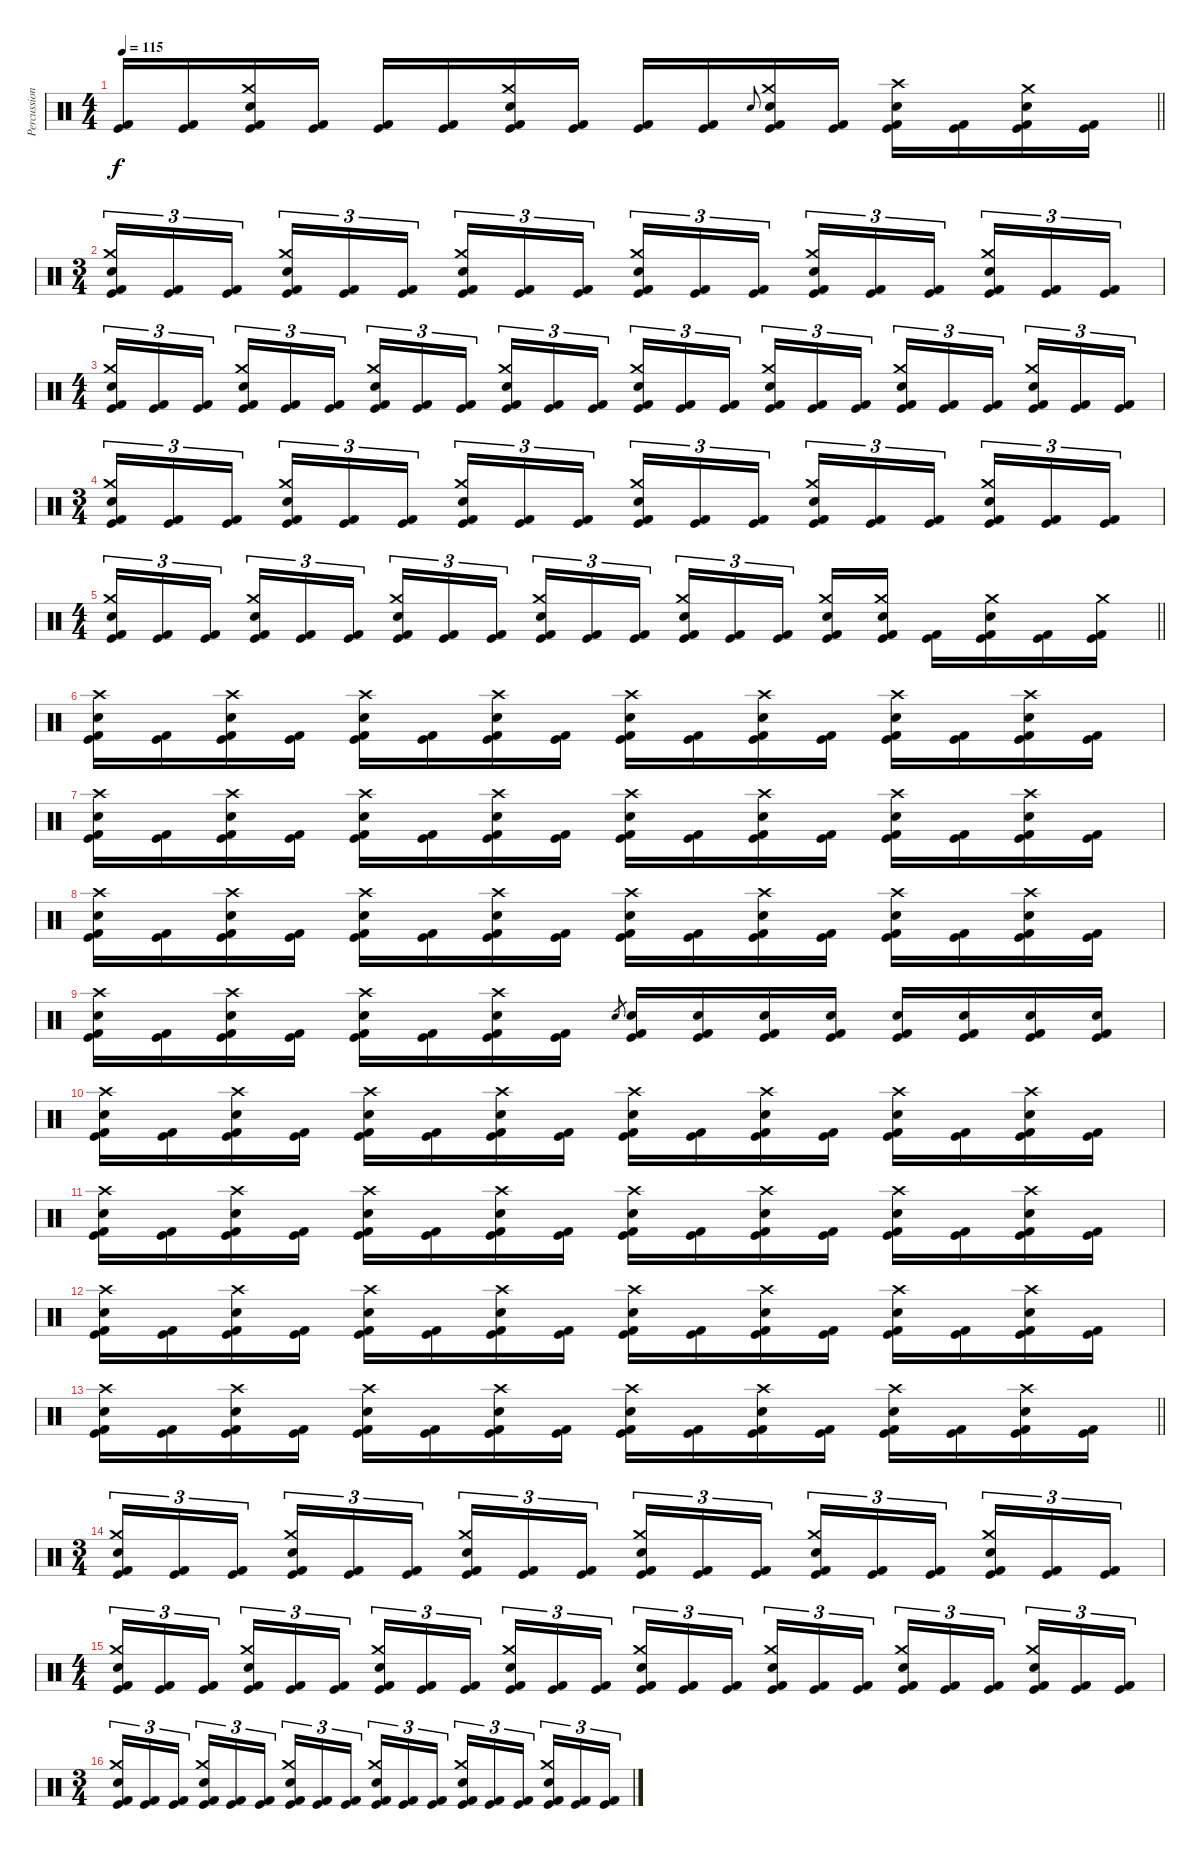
\track ("Percussion" "Percussion") {instrument percussion}
\staff {score}
\articulation defaults
\ts (4 4)
\tempo 115
\clef neutral
\barLineRight lightlight
\ks c
("Kick (hit)" "Kick (hit) 2").16{dy f} ("Kick (hit)" "Kick (hit) 2").16 ("Crash medium (hit)" "Electric Snare (hit)" "Kick (hit)" "Kick (hit) 2").16 ("Kick (hit)" "Kick (hit) 2").16 ("Kick (hit)" "Kick (hit) 2").16 ("Kick (hit)" "Kick (hit) 2").16 ("Crash medium (hit)" "Electric Snare (hit)" "Kick (hit)" "Kick (hit) 2").16 ("Kick (hit)" "Kick (hit) 2").16 ("Kick (hit)" "Kick (hit) 2").16 ("Kick (hit)" "Kick (hit) 2").16 "Electric Snare (hit)".8{gr onbeat} ("Crash medium (hit)" "Electric Snare (hit)" "Kick (hit)" "Kick (hit) 2").16 ("Kick (hit)" "Kick (hit) 2").16 ("Crash high (hit)" "Electric Snare (hit)" "Kick (hit)" "Kick (hit) 2").16 ("Kick (hit)" "Kick (hit) 2").16 ("Crash medium (hit)" "Electric Snare (hit)" "Kick (hit)" "Kick (hit) 2").16 ("Kick (hit)" "Kick (hit) 2").16 |
\ts (3 4)
\section ("" "")
("Crash medium (hit)" "Electric Snare (hit)" "Kick (hit)" "Kick (hit) 2").16{tu (3 2)} ("Kick (hit)" "Kick (hit) 2").16{tu (3 2)} ("Kick (hit)" "Kick (hit) 2").16{tu (3 2) beam splitsecondary} ("Crash medium (hit)" "Electric Snare (hit)" "Kick (hit)" "Kick (hit) 2").16{tu (3 2)} ("Kick (hit)" "Kick (hit) 2").16{tu (3 2)} ("Kick (hit)" "Kick (hit) 2").16{tu (3 2)} ("Crash medium (hit)" "Electric Snare (hit)" "Kick (hit)" "Kick (hit) 2").16{tu (3 2)} ("Kick (hit)" "Kick (hit) 2").16{tu (3 2)} ("Kick (hit)" "Kick (hit) 2").16{tu (3 2) beam splitsecondary} ("Crash medium (hit)" "Electric Snare (hit)" "Kick (hit)" "Kick (hit) 2").16{tu (3 2)} ("Kick (hit)" "Kick (hit) 2").16{tu (3 2)} ("Kick (hit)" "Kick (hit) 2").16{tu (3 2)} ("Crash medium (hit)" "Electric Snare (hit)" "Kick (hit)" "Kick (hit) 2").16{tu (3 2)} ("Kick (hit)" "Kick (hit) 2").16{tu (3 2)} ("Kick (hit)" "Kick (hit) 2").16{tu (3 2) beam splitsecondary} ("Crash medium (hit)" "Electric Snare (hit)" "Kick (hit)" "Kick (hit) 2").16{tu (3 2)} ("Kick (hit)" "Kick (hit) 2").16{tu (3 2)} ("Kick (hit)" "Kick (hit) 2").16{tu (3 2)} |
\ts (4 4)
("Crash medium (hit)" "Electric Snare (hit)" "Kick (hit)" "Kick (hit) 2").16{tu (3 2)} ("Kick (hit)" "Kick (hit) 2").16{tu (3 2)} ("Kick (hit)" "Kick (hit) 2").16{tu (3 2) beam splitsecondary} ("Crash medium (hit)" "Electric Snare (hit)" "Kick (hit)" "Kick (hit) 2").16{tu (3 2)} ("Kick (hit)" "Kick (hit) 2").16{tu (3 2)} ("Kick (hit)" "Kick (hit) 2").16{tu (3 2)} ("Crash medium (hit)" "Electric Snare (hit)" "Kick (hit)" "Kick (hit) 2").16{tu (3 2)} ("Kick (hit)" "Kick (hit) 2").16{tu (3 2)} ("Kick (hit)" "Kick (hit) 2").16{tu (3 2) beam splitsecondary} ("Crash medium (hit)" "Electric Snare (hit)" "Kick (hit)" "Kick (hit) 2").16{tu (3 2)} ("Kick (hit)" "Kick (hit) 2").16{tu (3 2)} ("Kick (hit)" "Kick (hit) 2").16{tu (3 2)} ("Crash medium (hit)" "Electric Snare (hit)" "Kick (hit)" "Kick (hit) 2").16{tu (3 2)} ("Kick (hit)" "Kick (hit) 2").16{tu (3 2)} ("Kick (hit)" "Kick (hit) 2").16{tu (3 2) beam splitsecondary} ("Crash medium (hit)" "Electric Snare (hit)" "Kick (hit)" "Kick (hit) 2").16{tu (3 2)} ("Kick (hit)" "Kick (hit) 2").16{tu (3 2)} ("Kick (hit)" "Kick (hit) 2").16{tu (3 2)} ("Crash medium (hit)" "Electric Snare (hit)" "Kick (hit)" "Kick (hit) 2").16{tu (3 2)} ("Kick (hit)" "Kick (hit) 2").16{tu (3 2)} ("Kick (hit)" "Kick (hit) 2").16{tu (3 2) beam splitsecondary} ("Crash medium (hit)" "Electric Snare (hit)" "Kick (hit)" "Kick (hit) 2").16{tu (3 2)} ("Kick (hit)" "Kick (hit) 2").16{tu (3 2)} ("Kick (hit)" "Kick (hit) 2").16{tu (3 2)} |
\ts (3 4)
("Crash medium (hit)" "Electric Snare (hit)" "Kick (hit)" "Kick (hit) 2").16{tu (3 2)} ("Kick (hit)" "Kick (hit) 2").16{tu (3 2)} ("Kick (hit)" "Kick (hit) 2").16{tu (3 2) beam splitsecondary} ("Crash medium (hit)" "Electric Snare (hit)" "Kick (hit)" "Kick (hit) 2").16{tu (3 2)} ("Kick (hit)" "Kick (hit) 2").16{tu (3 2)} ("Kick (hit)" "Kick (hit) 2").16{tu (3 2)} ("Crash medium (hit)" "Electric Snare (hit)" "Kick (hit)" "Kick (hit) 2").16{tu (3 2)} ("Kick (hit)" "Kick (hit) 2").16{tu (3 2)} ("Kick (hit)" "Kick (hit) 2").16{tu (3 2) beam splitsecondary} ("Crash medium (hit)" "Electric Snare (hit)" "Kick (hit)" "Kick (hit) 2").16{tu (3 2)} ("Kick (hit)" "Kick (hit) 2").16{tu (3 2)} ("Kick (hit)" "Kick (hit) 2").16{tu (3 2)} ("Crash medium (hit)" "Electric Snare (hit)" "Kick (hit)" "Kick (hit) 2").16{tu (3 2)} ("Kick (hit)" "Kick (hit) 2").16{tu (3 2)} ("Kick (hit)" "Kick (hit) 2").16{tu (3 2) beam splitsecondary} ("Crash medium (hit)" "Electric Snare (hit)" "Kick (hit)" "Kick (hit) 2").16{tu (3 2)} ("Kick (hit)" "Kick (hit) 2").16{tu (3 2)} ("Kick (hit)" "Kick (hit) 2").16{tu (3 2)} |
\ts (4 4)
\barLineRight lightlight
("Crash medium (hit)" "Electric Snare (hit)" "Kick (hit)" "Kick (hit) 2").16{tu (3 2)} ("Kick (hit)" "Kick (hit) 2").16{tu (3 2)} ("Kick (hit)" "Kick (hit) 2").16{tu (3 2) beam splitsecondary} ("Crash medium (hit)" "Electric Snare (hit)" "Kick (hit)" "Kick (hit) 2").16{tu (3 2)} ("Kick (hit)" "Kick (hit) 2").16{tu (3 2)} ("Kick (hit)" "Kick (hit) 2").16{tu (3 2)} ("Crash medium (hit)" "Electric Snare (hit)" "Kick (hit)" "Kick (hit) 2").16{tu (3 2)} ("Kick (hit)" "Kick (hit) 2").16{tu (3 2)} ("Kick (hit)" "Kick (hit) 2").16{tu (3 2) beam splitsecondary} ("Crash medium (hit)" "Electric Snare (hit)" "Kick (hit)" "Kick (hit) 2").16{tu (3 2)} ("Kick (hit)" "Kick (hit) 2").16{tu (3 2)} ("Kick (hit)" "Kick (hit) 2").16{tu (3 2)} ("Crash medium (hit)" "Electric Snare (hit)" "Kick (hit)" "Kick (hit) 2").16{tu (3 2)} ("Kick (hit)" "Kick (hit) 2").16{tu (3 2)} ("Kick (hit)" "Kick (hit) 2").16{tu (3 2) beam splitsecondary} ("Crash medium (hit)" "Electric Snare (hit)" "Kick (hit)" "Kick (hit) 2").16 ("Crash medium (hit)" "Electric Snare (hit)" "Kick (hit)" "Kick (hit) 2").16 ("Kick (hit)" "Kick (hit) 2").16 ("Crash medium (hit)" "Electric Snare (hit)" "Kick (hit)" "Kick (hit) 2").16 ("Kick (hit)" "Kick (hit) 2").16 ("Crash medium (hit)" "Kick (hit)" "Kick (hit) 2").16 |
\section ("" "")
("Crash high (hit)" "Electric Snare (hit)" "Kick (hit)" "Kick (hit) 2").16 ("Kick (hit)" "Kick (hit) 2").16 ("Crash high (hit)" "Electric Snare (hit)" "Kick (hit)" "Kick (hit) 2").16 ("Kick (hit)" "Kick (hit) 2").16 ("Crash high (hit)" "Electric Snare (hit)" "Kick (hit)" "Kick (hit) 2").16 ("Kick (hit)" "Kick (hit) 2").16 ("Crash high (hit)" "Electric Snare (hit)" "Kick (hit)" "Kick (hit) 2").16 ("Kick (hit)" "Kick (hit) 2").16 ("Crash high (hit)" "Electric Snare (hit)" "Kick (hit)" "Kick (hit) 2").16 ("Kick (hit)" "Kick (hit) 2").16 ("Crash high (hit)" "Electric Snare (hit)" "Kick (hit)" "Kick (hit) 2").16 ("Kick (hit)" "Kick (hit) 2").16 ("Crash high (hit)" "Electric Snare (hit)" "Kick (hit)" "Kick (hit) 2").16 ("Kick (hit)" "Kick (hit) 2").16 ("Crash high (hit)" "Electric Snare (hit)" "Kick (hit)" "Kick (hit) 2").16 ("Kick (hit)" "Kick (hit) 2").16 |
("Crash high (hit)" "Electric Snare (hit)" "Kick (hit)" "Kick (hit) 2").16 ("Kick (hit)" "Kick (hit) 2").16 ("Crash high (hit)" "Electric Snare (hit)" "Kick (hit)" "Kick (hit) 2").16 ("Kick (hit)" "Kick (hit) 2").16 ("Crash high (hit)" "Electric Snare (hit)" "Kick (hit)" "Kick (hit) 2").16 ("Kick (hit)" "Kick (hit) 2").16 ("Crash high (hit)" "Electric Snare (hit)" "Kick (hit)" "Kick (hit) 2").16 ("Kick (hit)" "Kick (hit) 2").16 ("Crash high (hit)" "Electric Snare (hit)" "Kick (hit)" "Kick (hit) 2").16 ("Kick (hit)" "Kick (hit) 2").16 ("Crash high (hit)" "Electric Snare (hit)" "Kick (hit)" "Kick (hit) 2").16 ("Kick (hit)" "Kick (hit) 2").16 ("Crash high (hit)" "Electric Snare (hit)" "Kick (hit)" "Kick (hit) 2").16 ("Kick (hit)" "Kick (hit) 2").16 ("Crash high (hit)" "Electric Snare (hit)" "Kick (hit)" "Kick (hit) 2").16 ("Kick (hit)" "Kick (hit) 2").16 |
("Crash high (hit)" "Electric Snare (hit)" "Kick (hit)" "Kick (hit) 2").16 ("Kick (hit)" "Kick (hit) 2").16 ("Crash high (hit)" "Electric Snare (hit)" "Kick (hit)" "Kick (hit) 2").16 ("Kick (hit)" "Kick (hit) 2").16 ("Crash high (hit)" "Electric Snare (hit)" "Kick (hit)" "Kick (hit) 2").16 ("Kick (hit)" "Kick (hit) 2").16 ("Crash high (hit)" "Electric Snare (hit)" "Kick (hit)" "Kick (hit) 2").16 ("Kick (hit)" "Kick (hit) 2").16 ("Crash high (hit)" "Electric Snare (hit)" "Kick (hit)" "Kick (hit) 2").16 ("Kick (hit)" "Kick (hit) 2").16 ("Crash high (hit)" "Electric Snare (hit)" "Kick (hit)" "Kick (hit) 2").16 ("Kick (hit)" "Kick (hit) 2").16 ("Crash high (hit)" "Electric Snare (hit)" "Kick (hit)" "Kick (hit) 2").16 ("Kick (hit)" "Kick (hit) 2").16 ("Crash high (hit)" "Electric Snare (hit)" "Kick (hit)" "Kick (hit) 2").16 ("Kick (hit)" "Kick (hit) 2").16 |
("Crash high (hit)" "Electric Snare (hit)" "Kick (hit)" "Kick (hit) 2").16 ("Kick (hit)" "Kick (hit) 2").16 ("Crash high (hit)" "Electric Snare (hit)" "Kick (hit)" "Kick (hit) 2").16 ("Kick (hit)" "Kick (hit) 2").16 ("Crash high (hit)" "Electric Snare (hit)" "Kick (hit)" "Kick (hit) 2").16 ("Kick (hit)" "Kick (hit) 2").16 ("Crash high (hit)" "Electric Snare (hit)" "Kick (hit)" "Kick (hit) 2").16 ("Kick (hit)" "Kick (hit) 2").16 "Electric Snare (hit)".8{gr} ("Electric Snare (hit)" "Kick (hit)" "Kick (hit) 2").16 ("Electric Snare (hit)" "Kick (hit)" "Kick (hit) 2").16 ("Electric Snare (hit)" "Kick (hit)" "Kick (hit) 2").16 ("Electric Snare (hit)" "Kick (hit)" "Kick (hit) 2").16 ("Electric Snare (hit)" "Kick (hit)" "Kick (hit) 2").16 ("Electric Snare (hit)" "Kick (hit)" "Kick (hit) 2").16 ("Electric Snare (hit)" "Kick (hit)" "Kick (hit) 2").16 ("Electric Snare (hit)" "Kick (hit)" "Kick (hit) 2").16 |
("Crash high (hit)" "Electric Snare (hit)" "Kick (hit)" "Kick (hit) 2").16 ("Kick (hit)" "Kick (hit) 2").16 ("Crash high (hit)" "Electric Snare (hit)" "Kick (hit)" "Kick (hit) 2").16 ("Kick (hit)" "Kick (hit) 2").16 ("Crash high (hit)" "Electric Snare (hit)" "Kick (hit)" "Kick (hit) 2").16 ("Kick (hit)" "Kick (hit) 2").16 ("Crash high (hit)" "Electric Snare (hit)" "Kick (hit)" "Kick (hit) 2").16 ("Kick (hit)" "Kick (hit) 2").16 ("Crash high (hit)" "Electric Snare (hit)" "Kick (hit)" "Kick (hit) 2").16 ("Kick (hit)" "Kick (hit) 2").16 ("Crash high (hit)" "Electric Snare (hit)" "Kick (hit)" "Kick (hit) 2").16 ("Kick (hit)" "Kick (hit) 2").16 ("Crash high (hit)" "Electric Snare (hit)" "Kick (hit)" "Kick (hit) 2").16 ("Kick (hit)" "Kick (hit) 2").16 ("Crash high (hit)" "Electric Snare (hit)" "Kick (hit)" "Kick (hit) 2").16 ("Kick (hit)" "Kick (hit) 2").16 |
("Crash high (hit)" "Electric Snare (hit)" "Kick (hit)" "Kick (hit) 2").16 ("Kick (hit)" "Kick (hit) 2").16 ("Crash high (hit)" "Electric Snare (hit)" "Kick (hit)" "Kick (hit) 2").16 ("Kick (hit)" "Kick (hit) 2").16 ("Crash high (hit)" "Electric Snare (hit)" "Kick (hit)" "Kick (hit) 2").16 ("Kick (hit)" "Kick (hit) 2").16 ("Crash high (hit)" "Electric Snare (hit)" "Kick (hit)" "Kick (hit) 2").16 ("Kick (hit)" "Kick (hit) 2").16 ("Crash high (hit)" "Electric Snare (hit)" "Kick (hit)" "Kick (hit) 2").16 ("Kick (hit)" "Kick (hit) 2").16 ("Crash high (hit)" "Electric Snare (hit)" "Kick (hit)" "Kick (hit) 2").16 ("Kick (hit)" "Kick (hit) 2").16 ("Crash high (hit)" "Electric Snare (hit)" "Kick (hit)" "Kick (hit) 2").16 ("Kick (hit)" "Kick (hit) 2").16 ("Crash high (hit)" "Electric Snare (hit)" "Kick (hit)" "Kick (hit) 2").16 ("Kick (hit)" "Kick (hit) 2").16 |
("Crash high (hit)" "Electric Snare (hit)" "Kick (hit)" "Kick (hit) 2").16 ("Kick (hit)" "Kick (hit) 2").16 ("Crash high (hit)" "Electric Snare (hit)" "Kick (hit)" "Kick (hit) 2").16 ("Kick (hit)" "Kick (hit) 2").16 ("Crash high (hit)" "Electric Snare (hit)" "Kick (hit)" "Kick (hit) 2").16 ("Kick (hit)" "Kick (hit) 2").16 ("Crash high (hit)" "Electric Snare (hit)" "Kick (hit)" "Kick (hit) 2").16 ("Kick (hit)" "Kick (hit) 2").16 ("Crash high (hit)" "Electric Snare (hit)" "Kick (hit)" "Kick (hit) 2").16 ("Kick (hit)" "Kick (hit) 2").16 ("Crash high (hit)" "Electric Snare (hit)" "Kick (hit)" "Kick (hit) 2").16 ("Kick (hit)" "Kick (hit) 2").16 ("Crash high (hit)" "Electric Snare (hit)" "Kick (hit)" "Kick (hit) 2").16 ("Kick (hit)" "Kick (hit) 2").16 ("Crash high (hit)" "Electric Snare (hit)" "Kick (hit)" "Kick (hit) 2").16 ("Kick (hit)" "Kick (hit) 2").16 |
\barLineRight lightlight
("Crash high (hit)" "Electric Snare (hit)" "Kick (hit)" "Kick (hit) 2").16 ("Kick (hit)" "Kick (hit) 2").16 ("Crash high (hit)" "Electric Snare (hit)" "Kick (hit)" "Kick (hit) 2").16 ("Kick (hit)" "Kick (hit) 2").16 ("Crash high (hit)" "Electric Snare (hit)" "Kick (hit)" "Kick (hit) 2").16 ("Kick (hit)" "Kick (hit) 2").16 ("Crash high (hit)" "Electric Snare (hit)" "Kick (hit)" "Kick (hit) 2").16 ("Kick (hit)" "Kick (hit) 2").16 ("Crash high (hit)" "Electric Snare (hit)" "Kick (hit)" "Kick (hit) 2").16 ("Kick (hit)" "Kick (hit) 2").16 ("Crash high (hit)" "Electric Snare (hit)" "Kick (hit)" "Kick (hit) 2").16 ("Kick (hit)" "Kick (hit) 2").16 ("Crash high (hit)" "Electric Snare (hit)" "Kick (hit)" "Kick (hit) 2").16 ("Kick (hit)" "Kick (hit) 2").16 ("Crash high (hit)" "Electric Snare (hit)" "Kick (hit)" "Kick (hit) 2").16 ("Kick (hit)" "Kick (hit) 2").16 |
\ts (3 4)
\section ("" "")
("Crash medium (hit)" "Electric Snare (hit)" "Kick (hit)" "Kick (hit) 2").16{tu (3 2)} ("Kick (hit)" "Kick (hit) 2").16{tu (3 2)} ("Kick (hit)" "Kick (hit) 2").16{tu (3 2) beam splitsecondary} ("Crash medium (hit)" "Electric Snare (hit)" "Kick (hit)" "Kick (hit) 2").16{tu (3 2)} ("Kick (hit)" "Kick (hit) 2").16{tu (3 2)} ("Kick (hit)" "Kick (hit) 2").16{tu (3 2)} ("Crash medium (hit)" "Electric Snare (hit)" "Kick (hit)" "Kick (hit) 2").16{tu (3 2)} ("Kick (hit)" "Kick (hit) 2").16{tu (3 2)} ("Kick (hit)" "Kick (hit) 2").16{tu (3 2) beam splitsecondary} ("Crash medium (hit)" "Electric Snare (hit)" "Kick (hit)" "Kick (hit) 2").16{tu (3 2)} ("Kick (hit)" "Kick (hit) 2").16{tu (3 2)} ("Kick (hit)" "Kick (hit) 2").16{tu (3 2)} ("Crash medium (hit)" "Electric Snare (hit)" "Kick (hit)" "Kick (hit) 2").16{tu (3 2)} ("Kick (hit)" "Kick (hit) 2").16{tu (3 2)} ("Kick (hit)" "Kick (hit) 2").16{tu (3 2) beam splitsecondary} ("Crash medium (hit)" "Electric Snare (hit)" "Kick (hit)" "Kick (hit) 2").16{tu (3 2)} ("Kick (hit)" "Kick (hit) 2").16{tu (3 2)} ("Kick (hit)" "Kick (hit) 2").16{tu (3 2)} |
\ts (4 4)
("Crash medium (hit)" "Electric Snare (hit)" "Kick (hit)" "Kick (hit) 2").16{tu (3 2)} ("Kick (hit)" "Kick (hit) 2").16{tu (3 2)} ("Kick (hit)" "Kick (hit) 2").16{tu (3 2) beam splitsecondary} ("Crash medium (hit)" "Electric Snare (hit)" "Kick (hit)" "Kick (hit) 2").16{tu (3 2)} ("Kick (hit)" "Kick (hit) 2").16{tu (3 2)} ("Kick (hit)" "Kick (hit) 2").16{tu (3 2)} ("Crash medium (hit)" "Electric Snare (hit)" "Kick (hit)" "Kick (hit) 2").16{tu (3 2)} ("Kick (hit)" "Kick (hit) 2").16{tu (3 2)} ("Kick (hit)" "Kick (hit) 2").16{tu (3 2) beam splitsecondary} ("Crash medium (hit)" "Electric Snare (hit)" "Kick (hit)" "Kick (hit) 2").16{tu (3 2)} ("Kick (hit)" "Kick (hit) 2").16{tu (3 2)} ("Kick (hit)" "Kick (hit) 2").16{tu (3 2)} ("Crash medium (hit)" "Electric Snare (hit)" "Kick (hit)" "Kick (hit) 2").16{tu (3 2)} ("Kick (hit)" "Kick (hit) 2").16{tu (3 2)} ("Kick (hit)" "Kick (hit) 2").16{tu (3 2) beam splitsecondary} ("Crash medium (hit)" "Electric Snare (hit)" "Kick (hit)" "Kick (hit) 2").16{tu (3 2)} ("Kick (hit)" "Kick (hit) 2").16{tu (3 2)} ("Kick (hit)" "Kick (hit) 2").16{tu (3 2)} ("Crash medium (hit)" "Electric Snare (hit)" "Kick (hit)" "Kick (hit) 2").16{tu (3 2)} ("Kick (hit)" "Kick (hit) 2").16{tu (3 2)} ("Kick (hit)" "Kick (hit) 2").16{tu (3 2) beam splitsecondary} ("Crash medium (hit)" "Electric Snare (hit)" "Kick (hit)" "Kick (hit) 2").16{tu (3 2)} ("Kick (hit)" "Kick (hit) 2").16{tu (3 2)} ("Kick (hit)" "Kick (hit) 2").16{tu (3 2)} |
\ts (3 4)
("Crash medium (hit)" "Electric Snare (hit)" "Kick (hit)" "Kick (hit) 2").16{tu (3 2)} ("Kick (hit)" "Kick (hit) 2").16{tu (3 2)} ("Kick (hit)" "Kick (hit) 2").16{tu (3 2) beam splitsecondary} ("Crash medium (hit)" "Electric Snare (hit)" "Kick (hit)" "Kick (hit) 2").16{tu (3 2)} ("Kick (hit)" "Kick (hit) 2").16{tu (3 2)} ("Kick (hit)" "Kick (hit) 2").16{tu (3 2)} ("Crash medium (hit)" "Electric Snare (hit)" "Kick (hit)" "Kick (hit) 2").16{tu (3 2)} ("Kick (hit)" "Kick (hit) 2").16{tu (3 2)} ("Kick (hit)" "Kick (hit) 2").16{tu (3 2) beam splitsecondary} ("Crash medium (hit)" "Electric Snare (hit)" "Kick (hit)" "Kick (hit) 2").16{tu (3 2)} ("Kick (hit)" "Kick (hit) 2").16{tu (3 2)} ("Kick (hit)" "Kick (hit) 2").16{tu (3 2)} ("Crash medium (hit)" "Electric Snare (hit)" "Kick (hit)" "Kick (hit) 2").16{tu (3 2)} ("Kick (hit)" "Kick (hit) 2").16{tu (3 2)} ("Kick (hit)" "Kick (hit) 2").16{tu (3 2) beam splitsecondary} ("Crash medium (hit)" "Electric Snare (hit)" "Kick (hit)" "Kick (hit) 2").16{tu (3 2)} ("Kick (hit)" "Kick (hit) 2").16{tu (3 2)} ("Kick (hit)" "Kick (hit) 2").16{tu (3 2)}
